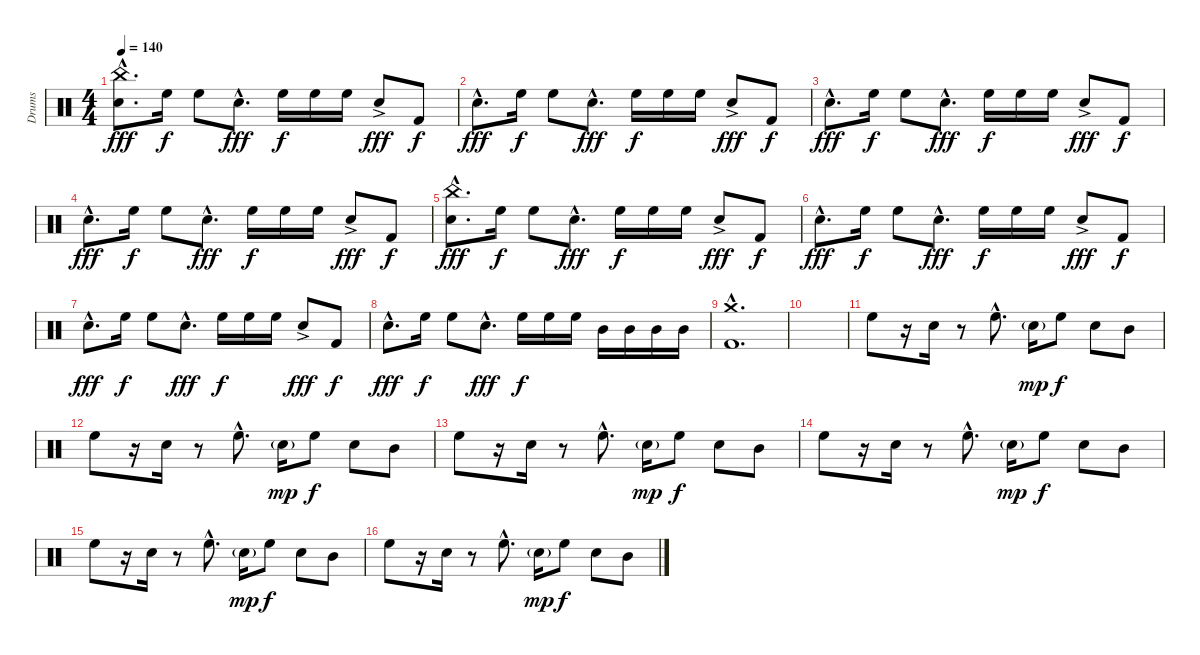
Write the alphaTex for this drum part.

\track ("Drums" "Drums") {instrument percussion}
\staff {score}
\articulation defaults
\ts (4 4)
\tempo 140
\clef neutral
\ks c
("Electric Snare (hit)"{hac} "China (hit)"{hac}).8{d dy fff} "High Floor Tom (hit)".16{dy f} "High Floor Tom (hit)".8 "Electric Snare (hit)"{hac}.8{d dy fff} "High Floor Tom (hit)".16{dy f} "High Floor Tom (hit)".16 "High Floor Tom (hit)".16 "Electric Snare (hit)"{ac}.8{dy fff} "Kick (hit) 2".8{dy f} |
"Electric Snare (hit)"{hac}.8{d dy fff} "High Floor Tom (hit)".16{dy f} "High Floor Tom (hit)".8 "Electric Snare (hit)"{hac}.8{d dy fff} "High Floor Tom (hit)".16{dy f} "High Floor Tom (hit)".16 "High Floor Tom (hit)".16 "Electric Snare (hit)"{ac}.8{dy fff} "Kick (hit) 2".8{dy f} |
"Electric Snare (hit)"{hac}.8{d dy fff} "High Floor Tom (hit)".16{dy f} "High Floor Tom (hit)".8 "Electric Snare (hit)"{hac}.8{d dy fff} "High Floor Tom (hit)".16{dy f} "High Floor Tom (hit)".16 "High Floor Tom (hit)".16 "Electric Snare (hit)"{ac}.8{dy fff} "Kick (hit) 2".8{dy f} |
"Electric Snare (hit)"{hac}.8{d dy fff} "High Floor Tom (hit)".16{dy f} "High Floor Tom (hit)".8 "Electric Snare (hit)"{hac}.8{d dy fff} "High Floor Tom (hit)".16{dy f} "High Floor Tom (hit)".16 "High Floor Tom (hit)".16 "Electric Snare (hit)"{ac}.8{dy fff} "Kick (hit) 2".8{dy f} |
("Electric Snare (hit)"{hac} "China (hit)"{hac}).8{d dy fff} "High Floor Tom (hit)".16{dy f} "High Floor Tom (hit)".8 "Electric Snare (hit)"{hac}.8{d dy fff} "High Floor Tom (hit)".16{dy f} "High Floor Tom (hit)".16 "High Floor Tom (hit)".16 "Electric Snare (hit)"{ac}.8{dy fff} "Kick (hit) 2".8{dy f} |
"Electric Snare (hit)"{hac}.8{d dy fff} "High Floor Tom (hit)".16{dy f} "High Floor Tom (hit)".8 "Electric Snare (hit)"{hac}.8{d dy fff} "High Floor Tom (hit)".16{dy f} "High Floor Tom (hit)".16 "High Floor Tom (hit)".16 "Electric Snare (hit)"{ac}.8{dy fff} "Kick (hit) 2".8{dy f} |
"Electric Snare (hit)"{hac}.8{d dy fff} "High Floor Tom (hit)".16{dy f} "High Floor Tom (hit)".8 "Electric Snare (hit)"{hac}.8{d dy fff} "High Floor Tom (hit)".16{dy f} "High Floor Tom (hit)".16 "High Floor Tom (hit)".16 "Electric Snare (hit)"{ac}.8{dy fff} "Kick (hit) 2".8{dy f} |
"Electric Snare (hit)"{hac}.8{d dy fff} "High Floor Tom (hit)".16{dy f} "High Floor Tom (hit)".8 "Electric Snare (hit)"{hac}.8{d dy fff} "High Floor Tom (hit)".16{dy f} "High Floor Tom (hit)".16 "High Floor Tom (hit)".16 "Mid Tom (hit)".16 "Mid Tom (hit)".16 "Mid Tom (hit)".16 "Mid Tom (hit)".16 |
("Crash medium (hit)"{hac} "Kick (hit) 2"{hac}).1{d} |
|
"High Floor Tom (hit)".8 r.16 "Electric Snare (hit)".16 r.8 "High Floor Tom (hit)"{hac}.8{d} "Electric Snare (hit)"{g}.16{dy mp} "High Floor Tom (hit)".8{dy f} "Electric Snare (hit)".8 "Mid Tom (hit)".8 |
"High Floor Tom (hit)".8 r.16 "Electric Snare (hit)".16 r.8 "High Floor Tom (hit)"{hac}.8{d} "Electric Snare (hit)"{g}.16{dy mp} "High Floor Tom (hit)".8{dy f} "Electric Snare (hit)".8 "Mid Tom (hit)".8 |
"High Floor Tom (hit)".8 r.16 "Electric Snare (hit)".16 r.8 "High Floor Tom (hit)"{hac}.8{d} "Electric Snare (hit)"{g}.16{dy mp} "High Floor Tom (hit)".8{dy f} "Electric Snare (hit)".8 "Mid Tom (hit)".8 |
"High Floor Tom (hit)".8 r.16 "Electric Snare (hit)".16 r.8 "High Floor Tom (hit)"{hac}.8{d} "Electric Snare (hit)"{g}.16{dy mp} "High Floor Tom (hit)".8{dy f} "Electric Snare (hit)".8 "Mid Tom (hit)".8 |
"High Floor Tom (hit)".8 r.16 "Electric Snare (hit)".16 r.8 "High Floor Tom (hit)"{hac}.8{d} "Electric Snare (hit)"{g}.16{dy mp} "High Floor Tom (hit)".8{dy f} "Electric Snare (hit)".8 "Mid Tom (hit)".8 |
"High Floor Tom (hit)".8 r.16 "Electric Snare (hit)".16 r.8 "High Floor Tom (hit)"{hac}.8{d} "Electric Snare (hit)"{g}.16{dy mp} "High Floor Tom (hit)".8{dy f} "Electric Snare (hit)".8 "Mid Tom (hit)".8
